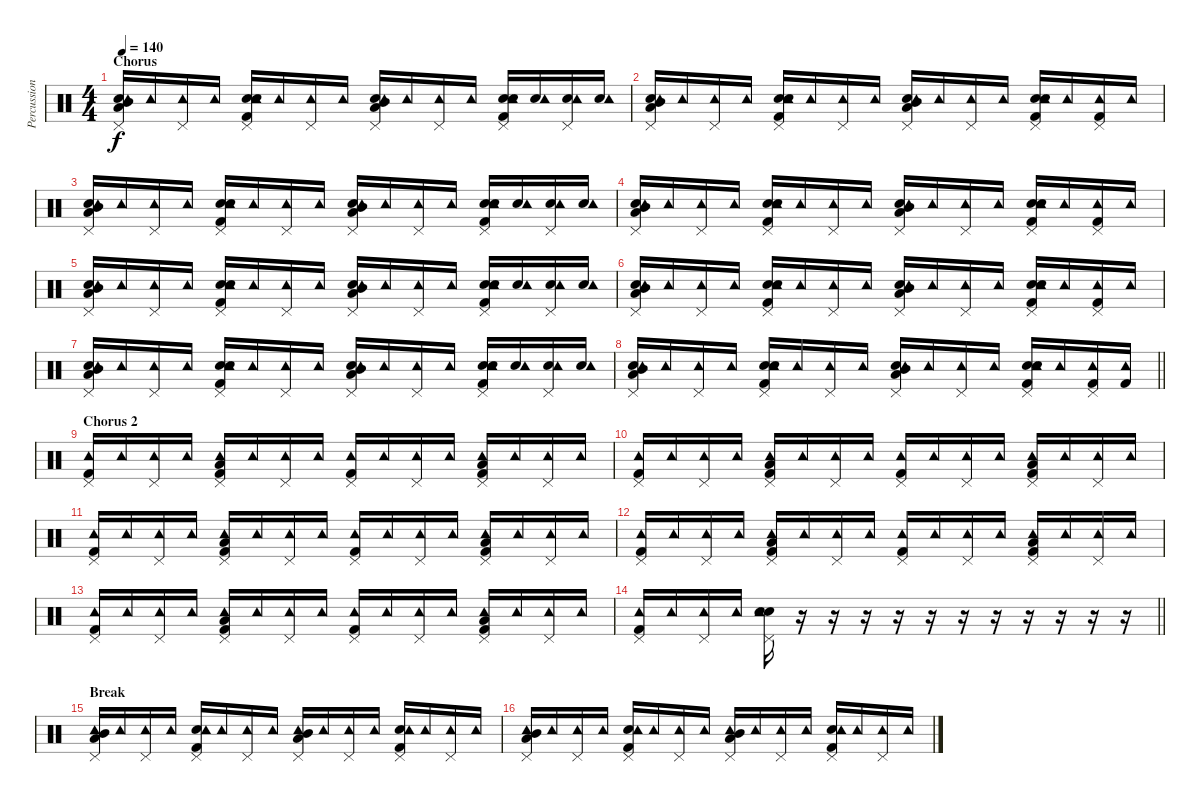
\track ("Percussion" "Percussion") {instrument percussion}
\staff {score}
\articulation defaults
\ts (4 4)
\section ("" "Chorus")
\tempo 140
\clef neutral
\ks c
("Low Tom (hit)" "Mid Tom (hit)" "Electric Snare (hit)" "Pedal Hi-Hat (hit)" "Tambourine (hit)").16{dy f volume 12} "Tambourine (hit)".16 ("Pedal Hi-Hat (hit)" "Tambourine (hit)").16 "Tambourine (hit)".16 ("Snare (hit) 2" "Kick (hit) 2" "Electric Snare (hit)" "Pedal Hi-Hat (hit)" "Tambourine (hit)").16 "Tambourine (hit)".16 ("Pedal Hi-Hat (hit)" "Tambourine (hit)").16 "Tambourine (hit)".16 ("Low Tom (hit)" "Mid Tom (hit)" "Electric Snare (hit)" "Pedal Hi-Hat (hit)" "Tambourine (hit)").16 "Tambourine (hit)".16 ("Pedal Hi-Hat (hit)" "Tambourine (hit)").16 "Tambourine (hit)".16 ("Snare (hit) 2" "Kick (hit) 2" "Electric Snare (hit)" "Pedal Hi-Hat (hit)" "Tambourine (hit)").16 ("Electric Snare (hit)" "Tambourine (hit)").16 ("Electric Snare (hit)" "Pedal Hi-Hat (hit)" "Tambourine (hit)").16 ("Electric Snare (hit)" "Tambourine (hit)").16 |
("Low Tom (hit)" "Mid Tom (hit)" "Electric Snare (hit)" "Pedal Hi-Hat (hit)" "Tambourine (hit)").16 "Tambourine (hit)".16 ("Pedal Hi-Hat (hit)" "Tambourine (hit)").16 "Tambourine (hit)".16 ("Snare (hit) 2" "Kick (hit) 2" "Electric Snare (hit)" "Pedal Hi-Hat (hit)" "Tambourine (hit)").16 "Tambourine (hit)".16 ("Pedal Hi-Hat (hit)" "Tambourine (hit)").16 "Tambourine (hit)".16 ("Low Tom (hit)" "Mid Tom (hit)" "Electric Snare (hit)" "Pedal Hi-Hat (hit)" "Tambourine (hit)").16 "Tambourine (hit)".16 ("Pedal Hi-Hat (hit)" "Tambourine (hit)").16 "Tambourine (hit)".16 ("Snare (hit) 2" "Kick (hit) 2" "Electric Snare (hit)" "Pedal Hi-Hat (hit)" "Tambourine (hit)").16 "Tambourine (hit)".16 ("Kick (hit) 2" "Pedal Hi-Hat (hit)" "Tambourine (hit)").16 "Tambourine (hit)".16 |
("Low Tom (hit)" "Mid Tom (hit)" "Electric Snare (hit)" "Pedal Hi-Hat (hit)" "Tambourine (hit)").16 "Tambourine (hit)".16 ("Pedal Hi-Hat (hit)" "Tambourine (hit)").16 "Tambourine (hit)".16 ("Snare (hit) 2" "Kick (hit) 2" "Electric Snare (hit)" "Pedal Hi-Hat (hit)" "Tambourine (hit)").16 "Tambourine (hit)".16 ("Pedal Hi-Hat (hit)" "Tambourine (hit)").16 "Tambourine (hit)".16 ("Low Tom (hit)" "Mid Tom (hit)" "Electric Snare (hit)" "Pedal Hi-Hat (hit)" "Tambourine (hit)").16 "Tambourine (hit)".16 ("Pedal Hi-Hat (hit)" "Tambourine (hit)").16 "Tambourine (hit)".16 ("Snare (hit) 2" "Kick (hit) 2" "Electric Snare (hit)" "Pedal Hi-Hat (hit)" "Tambourine (hit)").16 ("Electric Snare (hit)" "Tambourine (hit)").16 ("Electric Snare (hit)" "Pedal Hi-Hat (hit)" "Tambourine (hit)").16 ("Electric Snare (hit)" "Tambourine (hit)").16 |
("Low Tom (hit)" "Mid Tom (hit)" "Electric Snare (hit)" "Pedal Hi-Hat (hit)" "Tambourine (hit)").16 "Tambourine (hit)".16 ("Pedal Hi-Hat (hit)" "Tambourine (hit)").16 "Tambourine (hit)".16 ("Snare (hit) 2" "Kick (hit) 2" "Electric Snare (hit)" "Pedal Hi-Hat (hit)" "Tambourine (hit)").16 "Tambourine (hit)".16 ("Pedal Hi-Hat (hit)" "Tambourine (hit)").16 "Tambourine (hit)".16 ("Low Tom (hit)" "Mid Tom (hit)" "Electric Snare (hit)" "Pedal Hi-Hat (hit)" "Tambourine (hit)").16 "Tambourine (hit)".16 ("Pedal Hi-Hat (hit)" "Tambourine (hit)").16 "Tambourine (hit)".16 ("Snare (hit) 2" "Kick (hit) 2" "Electric Snare (hit)" "Pedal Hi-Hat (hit)" "Tambourine (hit)").16 "Tambourine (hit)".16 ("Kick (hit) 2" "Pedal Hi-Hat (hit)" "Tambourine (hit)").16 "Tambourine (hit)".16 |
("Low Tom (hit)" "Mid Tom (hit)" "Electric Snare (hit)" "Pedal Hi-Hat (hit)" "Tambourine (hit)").16 "Tambourine (hit)".16 ("Pedal Hi-Hat (hit)" "Tambourine (hit)").16 "Tambourine (hit)".16 ("Snare (hit) 2" "Kick (hit) 2" "Electric Snare (hit)" "Pedal Hi-Hat (hit)" "Tambourine (hit)").16 "Tambourine (hit)".16 ("Pedal Hi-Hat (hit)" "Tambourine (hit)").16 "Tambourine (hit)".16 ("Low Tom (hit)" "Mid Tom (hit)" "Electric Snare (hit)" "Pedal Hi-Hat (hit)" "Tambourine (hit)").16 "Tambourine (hit)".16 ("Pedal Hi-Hat (hit)" "Tambourine (hit)").16 "Tambourine (hit)".16 ("Snare (hit) 2" "Kick (hit) 2" "Electric Snare (hit)" "Pedal Hi-Hat (hit)" "Tambourine (hit)").16 ("Electric Snare (hit)" "Tambourine (hit)").16 ("Electric Snare (hit)" "Pedal Hi-Hat (hit)" "Tambourine (hit)").16 ("Electric Snare (hit)" "Tambourine (hit)").16 |
("Low Tom (hit)" "Mid Tom (hit)" "Electric Snare (hit)" "Pedal Hi-Hat (hit)" "Tambourine (hit)").16 "Tambourine (hit)".16 ("Pedal Hi-Hat (hit)" "Tambourine (hit)").16 "Tambourine (hit)".16 ("Snare (hit) 2" "Kick (hit) 2" "Electric Snare (hit)" "Pedal Hi-Hat (hit)" "Tambourine (hit)").16 "Tambourine (hit)".16 ("Pedal Hi-Hat (hit)" "Tambourine (hit)").16 "Tambourine (hit)".16 ("Low Tom (hit)" "Mid Tom (hit)" "Electric Snare (hit)" "Pedal Hi-Hat (hit)" "Tambourine (hit)").16 "Tambourine (hit)".16 ("Pedal Hi-Hat (hit)" "Tambourine (hit)").16 "Tambourine (hit)".16 ("Snare (hit) 2" "Kick (hit) 2" "Electric Snare (hit)" "Pedal Hi-Hat (hit)" "Tambourine (hit)").16 "Tambourine (hit)".16 ("Kick (hit) 2" "Pedal Hi-Hat (hit)" "Tambourine (hit)").16 "Tambourine (hit)".16 |
("Low Tom (hit)" "Mid Tom (hit)" "Electric Snare (hit)" "Pedal Hi-Hat (hit)" "Tambourine (hit)").16 "Tambourine (hit)".16 ("Pedal Hi-Hat (hit)" "Tambourine (hit)").16 "Tambourine (hit)".16 ("Snare (hit) 2" "Kick (hit) 2" "Electric Snare (hit)" "Pedal Hi-Hat (hit)" "Tambourine (hit)").16 "Tambourine (hit)".16 ("Pedal Hi-Hat (hit)" "Tambourine (hit)").16 "Tambourine (hit)".16 ("Low Tom (hit)" "Mid Tom (hit)" "Electric Snare (hit)" "Pedal Hi-Hat (hit)" "Tambourine (hit)").16 "Tambourine (hit)".16 ("Pedal Hi-Hat (hit)" "Tambourine (hit)").16 "Tambourine (hit)".16 ("Snare (hit) 2" "Kick (hit) 2" "Electric Snare (hit)" "Pedal Hi-Hat (hit)" "Tambourine (hit)").16 ("Electric Snare (hit)" "Tambourine (hit)").16 ("Electric Snare (hit)" "Pedal Hi-Hat (hit)" "Tambourine (hit)").16 ("Electric Snare (hit)" "Tambourine (hit)").16 |
\barLineRight lightlight
("Low Tom (hit)" "Mid Tom (hit)" "Electric Snare (hit)" "Pedal Hi-Hat (hit)" "Tambourine (hit)").16 "Tambourine (hit)".16 ("Pedal Hi-Hat (hit)" "Tambourine (hit)").16 "Tambourine (hit)".16 ("Snare (hit) 2" "Kick (hit) 2" "Electric Snare (hit)" "Pedal Hi-Hat (hit)" "Tambourine (hit)").16 "Tambourine (hit)".16 ("Pedal Hi-Hat (hit)" "Tambourine (hit)").16 "Tambourine (hit)".16 ("Low Tom (hit)" "Mid Tom (hit)" "Electric Snare (hit)" "Pedal Hi-Hat (hit)" "Tambourine (hit)").16 "Tambourine (hit)".16 ("Pedal Hi-Hat (hit)" "Tambourine (hit)").16 "Tambourine (hit)".16 ("Snare (hit) 2" "Kick (hit) 2" "Electric Snare (hit)" "Pedal Hi-Hat (hit)" "Tambourine (hit)").16 "Tambourine (hit)".16 ("Kick (hit) 2" "Pedal Hi-Hat (hit)" "Tambourine (hit)").16 ("Kick (hit) 2" "Tambourine (hit)").16 |
\section ("" "Chorus 2")
("Kick (hit) 2" "Pedal Hi-Hat (hit)" "Tambourine (hit)").16 "Tambourine (hit)".16 ("Pedal Hi-Hat (hit)" "Tambourine (hit)").16 "Tambourine (hit)".16 ("Low Tom (hit)" "Kick (hit) 2" "Pedal Hi-Hat (hit)" "Tambourine (hit)").16 "Tambourine (hit)".16 ("Pedal Hi-Hat (hit)" "Tambourine (hit)").16 "Tambourine (hit)".16 ("Kick (hit) 2" "Pedal Hi-Hat (hit)" "Tambourine (hit)").16 "Tambourine (hit)".16 ("Pedal Hi-Hat (hit)" "Tambourine (hit)").16 "Tambourine (hit)".16 ("Low Tom (hit)" "Kick (hit) 2" "Pedal Hi-Hat (hit)" "Tambourine (hit)").16 "Tambourine (hit)".16 ("Pedal Hi-Hat (hit)" "Tambourine (hit)").16 "Tambourine (hit)".16 |
("Kick (hit) 2" "Pedal Hi-Hat (hit)" "Tambourine (hit)").16 "Tambourine (hit)".16 ("Pedal Hi-Hat (hit)" "Tambourine (hit)").16 "Tambourine (hit)".16 ("Low Tom (hit)" "Kick (hit) 2" "Pedal Hi-Hat (hit)" "Tambourine (hit)").16 "Tambourine (hit)".16 ("Pedal Hi-Hat (hit)" "Tambourine (hit)").16 "Tambourine (hit)".16 ("Kick (hit) 2" "Pedal Hi-Hat (hit)" "Tambourine (hit)").16 "Tambourine (hit)".16 ("Pedal Hi-Hat (hit)" "Tambourine (hit)").16 "Tambourine (hit)".16 ("Low Tom (hit)" "Kick (hit) 2" "Pedal Hi-Hat (hit)" "Tambourine (hit)").16 "Tambourine (hit)".16 ("Pedal Hi-Hat (hit)" "Tambourine (hit)").16 "Tambourine (hit)".16 |
("Kick (hit) 2" "Pedal Hi-Hat (hit)" "Tambourine (hit)").16 "Tambourine (hit)".16 ("Pedal Hi-Hat (hit)" "Tambourine (hit)").16 "Tambourine (hit)".16 ("Low Tom (hit)" "Kick (hit) 2" "Pedal Hi-Hat (hit)" "Tambourine (hit)").16 "Tambourine (hit)".16 ("Pedal Hi-Hat (hit)" "Tambourine (hit)").16 "Tambourine (hit)".16 ("Kick (hit) 2" "Pedal Hi-Hat (hit)" "Tambourine (hit)").16 "Tambourine (hit)".16 ("Pedal Hi-Hat (hit)" "Tambourine (hit)").16 "Tambourine (hit)".16 ("Low Tom (hit)" "Kick (hit) 2" "Pedal Hi-Hat (hit)" "Tambourine (hit)").16 "Tambourine (hit)".16 ("Pedal Hi-Hat (hit)" "Tambourine (hit)").16 "Tambourine (hit)".16 |
("Kick (hit) 2" "Pedal Hi-Hat (hit)" "Tambourine (hit)").16 "Tambourine (hit)".16 ("Pedal Hi-Hat (hit)" "Tambourine (hit)").16 "Tambourine (hit)".16 ("Low Tom (hit)" "Kick (hit) 2" "Pedal Hi-Hat (hit)" "Tambourine (hit)").16 "Tambourine (hit)".16 ("Pedal Hi-Hat (hit)" "Tambourine (hit)").16 "Tambourine (hit)".16 ("Kick (hit) 2" "Pedal Hi-Hat (hit)" "Tambourine (hit)").16 "Tambourine (hit)".16 ("Pedal Hi-Hat (hit)" "Tambourine (hit)").16 "Tambourine (hit)".16 ("Low Tom (hit)" "Kick (hit) 2" "Pedal Hi-Hat (hit)" "Tambourine (hit)").16 "Tambourine (hit)".16 ("Pedal Hi-Hat (hit)" "Tambourine (hit)").16 "Tambourine (hit)".16 |
("Kick (hit) 2" "Pedal Hi-Hat (hit)" "Tambourine (hit)").16 "Tambourine (hit)".16 ("Pedal Hi-Hat (hit)" "Tambourine (hit)").16 "Tambourine (hit)".16 ("Low Tom (hit)" "Kick (hit) 2" "Pedal Hi-Hat (hit)" "Tambourine (hit)").16 "Tambourine (hit)".16 ("Pedal Hi-Hat (hit)" "Tambourine (hit)").16 "Tambourine (hit)".16 ("Kick (hit) 2" "Pedal Hi-Hat (hit)" "Tambourine (hit)").16 "Tambourine (hit)".16 ("Pedal Hi-Hat (hit)" "Tambourine (hit)").16 "Tambourine (hit)".16 ("Low Tom (hit)" "Kick (hit) 2" "Pedal Hi-Hat (hit)" "Tambourine (hit)").16 "Tambourine (hit)".16 ("Pedal Hi-Hat (hit)" "Tambourine (hit)").16 "Tambourine (hit)".16 |
\barLineRight lightlight
("Kick (hit) 2" "Pedal Hi-Hat (hit)" "Tambourine (hit)").16 "Tambourine (hit)".16 ("Pedal Hi-Hat (hit)" "Tambourine (hit)").16 "Tambourine (hit)".16 ("Electric Snare (hit)" "Electric Snare (hit)" "Pedal Hi-Hat (hit)" "Tambourine (hit)").16 r.16 r.16 r.16 r.16 r.16 r.16 r.16 r.16 r.16 r.16 r.16 |
\section ("" "Break")
("Low Tom (hit)" "Mid Tom (hit)" "Pedal Hi-Hat (hit)" "Tambourine (hit)").16 "Tambourine (hit)".16 ("Pedal Hi-Hat (hit)" "Tambourine (hit)").16 "Tambourine (hit)".16 ("Snare (hit) 2" "Kick (hit) 2" "Pedal Hi-Hat (hit)" "Tambourine (hit)").16 "Tambourine (hit)".16 ("Pedal Hi-Hat (hit)" "Tambourine (hit)").16 "Tambourine (hit)".16 ("Low Tom (hit)" "Mid Tom (hit)" "Pedal Hi-Hat (hit)" "Tambourine (hit)").16 "Tambourine (hit)".16 ("Pedal Hi-Hat (hit)" "Tambourine (hit)").16 "Tambourine (hit)".16 ("Snare (hit) 2" "Kick (hit) 2" "Pedal Hi-Hat (hit)" "Tambourine (hit)").16 "Tambourine (hit)".16 ("Pedal Hi-Hat (hit)" "Tambourine (hit)").16 "Tambourine (hit)".16 |
("Low Tom (hit)" "Mid Tom (hit)" "Pedal Hi-Hat (hit)" "Tambourine (hit)").16 "Tambourine (hit)".16 ("Pedal Hi-Hat (hit)" "Tambourine (hit)").16 "Tambourine (hit)".16 ("Snare (hit) 2" "Kick (hit) 2" "Pedal Hi-Hat (hit)" "Tambourine (hit)").16 "Tambourine (hit)".16 ("Pedal Hi-Hat (hit)" "Tambourine (hit)").16 "Tambourine (hit)".16 ("Low Tom (hit)" "Mid Tom (hit)" "Pedal Hi-Hat (hit)" "Tambourine (hit)").16 "Tambourine (hit)".16 ("Pedal Hi-Hat (hit)" "Tambourine (hit)").16 "Tambourine (hit)".16 ("Snare (hit) 2" "Kick (hit) 2" "Pedal Hi-Hat (hit)" "Tambourine (hit)").16 "Tambourine (hit)".16 ("Pedal Hi-Hat (hit)" "Tambourine (hit)").16 "Tambourine (hit)".16
